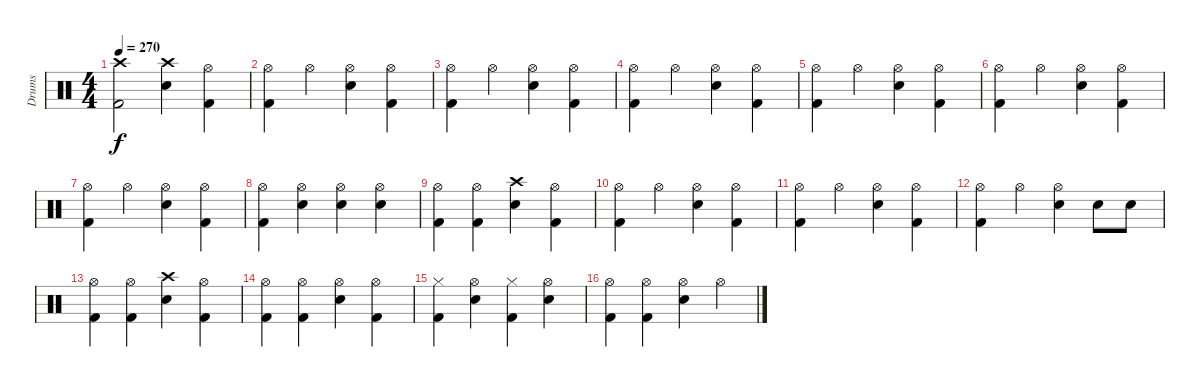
\track ("Drums" "Drums") {instrument percussion}
\staff {score}
\articulation defaults
\ts (4 4)
\tempo 270
\clef neutral
\ks c
("Crash high (hit)" "Kick (hit) 2").2{dy f} ("Crash high (hit)" "Snare (hit) 2").4 ("Hi-Hat (open)" "Kick (hit) 2").4 |
("Hi-Hat (open)" "Kick (hit) 2").4 "Hi-Hat (open)".4 ("Hi-Hat (open)" "Snare (hit) 2").4 ("Hi-Hat (open)" "Kick (hit) 2").4 |
("Hi-Hat (open)" "Kick (hit) 2").4 "Hi-Hat (open)".4 ("Hi-Hat (open)" "Snare (hit) 2").4 ("Hi-Hat (open)" "Kick (hit) 2").4 |
("Hi-Hat (open)" "Kick (hit) 2").4 "Hi-Hat (open)".4 ("Hi-Hat (open)" "Snare (hit) 2").4 ("Hi-Hat (open)" "Kick (hit) 2").4 |
("Hi-Hat (open)" "Kick (hit) 2").4 "Hi-Hat (open)".4 ("Hi-Hat (open)" "Snare (hit) 2").4 ("Hi-Hat (open)" "Kick (hit) 2").4 |
("Hi-Hat (open)" "Kick (hit) 2").4 "Hi-Hat (open)".4 ("Hi-Hat (open)" "Snare (hit) 2").4 ("Hi-Hat (open)" "Kick (hit) 2").4 |
("Hi-Hat (open)" "Kick (hit) 2").4 "Hi-Hat (open)".4 ("Hi-Hat (open)" "Snare (hit) 2").4 ("Hi-Hat (open)" "Kick (hit) 2").4 |
("Hi-Hat (open)" "Kick (hit) 2").4 ("Hi-Hat (open)" "Snare (hit) 2").4 ("Hi-Hat (open)" "Snare (hit) 2").4 ("Hi-Hat (open)" "Snare (hit) 2").4 |
("Hi-Hat (open)" "Kick (hit) 2").4 ("Hi-Hat (open)" "Kick (hit) 2").4 ("Crash high (hit)" "Snare (hit) 2").4 ("Hi-Hat (open)" "Kick (hit) 2").4 |
("Hi-Hat (open)" "Kick (hit) 2").4 "Hi-Hat (open)".4 ("Hi-Hat (open)" "Snare (hit) 2").4 ("Hi-Hat (open)" "Kick (hit) 2").4 |
("Hi-Hat (open)" "Kick (hit) 2").4 "Hi-Hat (open)".4 ("Hi-Hat (open)" "Snare (hit) 2").4 ("Hi-Hat (open)" "Kick (hit) 2").4 |
("Hi-Hat (open)" "Kick (hit) 2").4 "Hi-Hat (open)".4 ("Hi-Hat (open)" "Snare (hit) 2").4 "Snare (hit) 2".8 "Snare (hit) 2".8 |
("Hi-Hat (open)" "Kick (hit) 2").4 ("Hi-Hat (open)" "Kick (hit) 2").4 ("Crash high (hit)" "Snare (hit) 2").4 ("Hi-Hat (open)" "Kick (hit) 2").4 |
("Hi-Hat (open)" "Kick (hit) 2").4 ("Hi-Hat (open)" "Kick (hit) 2").4 ("Hi-Hat (open)" "Snare (hit) 2").4 ("Hi-Hat (open)" "Kick (hit) 2").4 |
("Hi-Hat (closed)" "Kick (hit) 2").4 ("Hi-Hat (open)" "Snare (hit) 2").4 ("Hi-Hat (closed)" "Kick (hit) 2").4 ("Hi-Hat (open)" "Snare (hit) 2").4 |
("Hi-Hat (open)" "Kick (hit) 2").4 ("Hi-Hat (open)" "Kick (hit) 2").4 ("Hi-Hat (open)" "Snare (hit) 2").4 "Hi-Hat (open)".4
